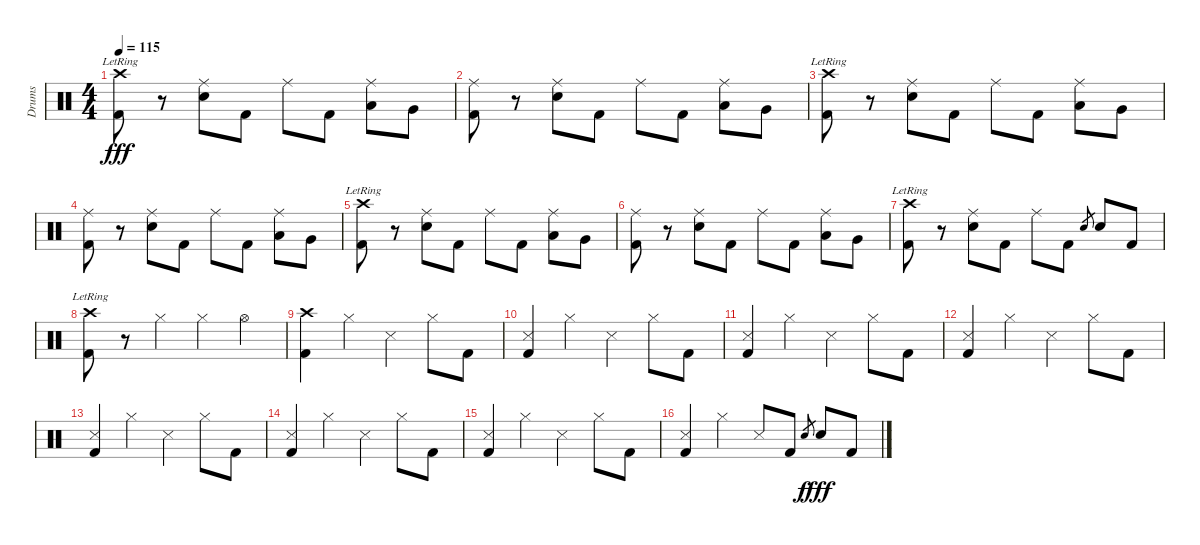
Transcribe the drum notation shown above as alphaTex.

\track ("Drums" "Drums") {instrument percussion}
\staff {score}
\articulation defaults
\ts (4 4)
\tempo 115
\clef neutral
\ks c
("Crash high (hit)"{lr} "Kick (hit) 2").8{dy fff} r.8 ("Ride (middle)" "Electric Snare (hit)").8 "Kick (hit) 2".8 "Ride (middle)".8 "Kick (hit) 2".8 ("Ride (middle)" "Low Tom (hit)").8 "Very Low Tom (hit)".8 |
("Ride (middle)" "Kick (hit) 2").8 r.8 ("Ride (middle)" "Electric Snare (hit)").8 "Kick (hit) 2".8 "Ride (middle)".8 "Kick (hit) 2".8 ("Ride (middle)" "Low Tom (hit)").8 "Very Low Tom (hit)".8 |
("Crash high (hit)"{lr} "Kick (hit) 2").8 r.8 ("Ride (middle)" "Electric Snare (hit)").8 "Kick (hit) 2".8 "Ride (middle)".8 "Kick (hit) 2".8 ("Ride (middle)" "Low Tom (hit)").8 "Very Low Tom (hit)".8 |
("Ride (middle)" "Kick (hit) 2").8 r.8 ("Ride (middle)" "Electric Snare (hit)").8 "Kick (hit) 2".8 "Ride (middle)".8 "Kick (hit) 2".8 ("Ride (middle)" "Low Tom (hit)").8 "Very Low Tom (hit)".8 |
("Crash high (hit)"{lr} "Kick (hit) 2").8 r.8 ("Ride (middle)" "Electric Snare (hit)").8 "Kick (hit) 2".8 "Ride (middle)".8 "Kick (hit) 2".8 ("Ride (middle)" "Low Tom (hit)").8 "Very Low Tom (hit)".8 |
("Ride (middle)" "Kick (hit) 2").8 r.8 ("Ride (middle)" "Electric Snare (hit)").8 "Kick (hit) 2".8 "Ride (middle)".8 "Kick (hit) 2".8 ("Ride (middle)" "Low Tom (hit)").8 "Very Low Tom (hit)".8 |
("Crash high (hit)"{lr} "Kick (hit) 2").8 r.8 ("Ride (middle)" "Electric Snare (hit)").8 "Kick (hit) 2".8 "Ride (middle)".8 "Kick (hit) 2".8 "Electric Snare (hit)".8{gr} "Electric Snare (hit)".8 "Kick (hit) 2".8 |
("Crash high (hit)"{lr} "Kick (hit) 2").8 r.8 "Hi-Hat (closed)".4 "Hi-Hat (closed)".4 "Hi-Hat (open)".4 |
("Crash high (hit)" "Kick (hit) 2").4 "Hi-Hat (closed)".4 "Snare (side stick) 3".4 "Hi-Hat (closed)".8 "Kick (hit) 2".8 |
("Snare (side stick) 3" "Kick (hit) 2").4 "Hi-Hat (closed)".4 "Snare (side stick) 3".4 "Hi-Hat (closed)".8 "Kick (hit) 2".8 |
("Snare (side stick) 3" "Kick (hit) 2").4 "Hi-Hat (closed)".4 "Snare (side stick) 3".4 "Hi-Hat (closed)".8 "Kick (hit) 2".8 |
("Snare (side stick) 3" "Kick (hit) 2").4 "Hi-Hat (closed)".4 "Snare (side stick) 3".4 "Hi-Hat (closed)".8 "Kick (hit) 2".8 |
("Snare (side stick) 3" "Kick (hit) 2").4 "Hi-Hat (closed)".4 "Snare (side stick) 3".4 "Hi-Hat (closed)".8 "Kick (hit) 2".8 |
("Snare (side stick) 3" "Kick (hit) 2").4 "Hi-Hat (closed)".4 "Snare (side stick) 3".4 "Hi-Hat (closed)".8 "Kick (hit) 2".8 |
("Snare (side stick) 3" "Kick (hit) 2").4 "Hi-Hat (closed)".4 "Snare (side stick) 3".4 "Hi-Hat (closed)".8 "Kick (hit) 2".8 |
("Snare (side stick) 3" "Kick (hit) 2").4 "Hi-Hat (closed)".4 "Snare (side stick) 3".8 "Kick (hit) 2".8 "Electric Snare (hit)".8{gr dy f} "Electric Snare (hit)".8{dy fff} "Kick (hit) 2".8
